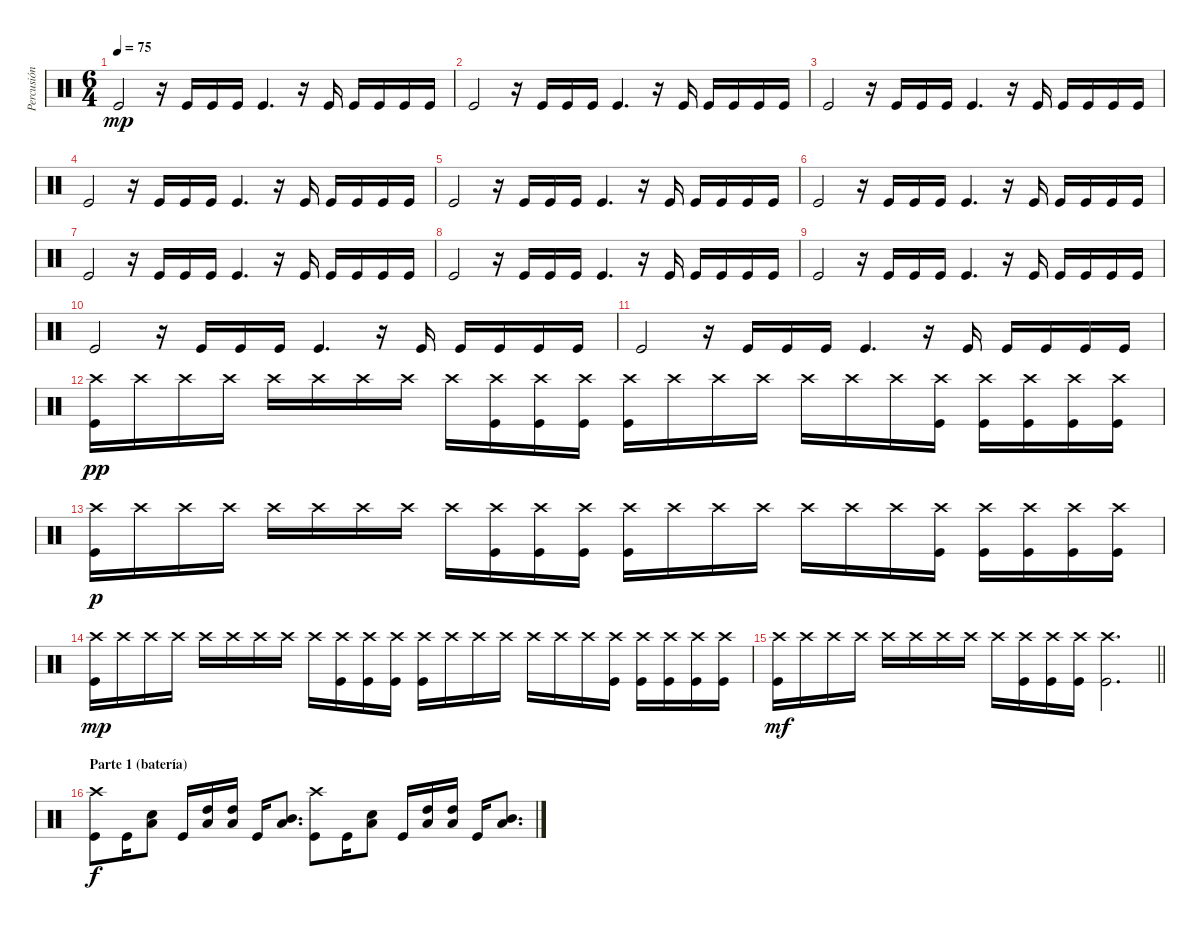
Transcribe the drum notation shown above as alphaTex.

\track ("Percusión" "Percusión") {instrument percussion}
\staff {score}
\articulation defaults
\ts (6 4)
\tempo 75
\clef neutral
\ks c "Kick (hit)".2{dy mp}
r.16 "Kick (hit)".16 "Kick (hit)".16 "Kick (hit)".16 "Kick (hit)".4{d} r.16 "Kick (hit)".16 "Kick (hit)".16 "Kick (hit)".16 "Kick (hit)".16 "Kick (hit)".16 |
"Kick (hit)".2 r.16 "Kick (hit)".16 "Kick (hit)".16 "Kick (hit)".16 "Kick (hit)".4{d} r.16 "Kick (hit)".16 "Kick (hit)".16 "Kick (hit)".16 "Kick (hit)".16 "Kick (hit)".16 |
"Kick (hit)".2 r.16 "Kick (hit)".16 "Kick (hit)".16 "Kick (hit)".16 "Kick (hit)".4{d} r.16 "Kick (hit)".16 "Kick (hit)".16 "Kick (hit)".16 "Kick (hit)".16 "Kick (hit)".16 |
"Kick (hit)".2 r.16 "Kick (hit)".16 "Kick (hit)".16 "Kick (hit)".16 "Kick (hit)".4{d} r.16 "Kick (hit)".16 "Kick (hit)".16 "Kick (hit)".16 "Kick (hit)".16 "Kick (hit)".16 |
"Kick (hit)".2 r.16 "Kick (hit)".16 "Kick (hit)".16 "Kick (hit)".16 "Kick (hit)".4{d} r.16 "Kick (hit)".16 "Kick (hit)".16 "Kick (hit)".16 "Kick (hit)".16 "Kick (hit)".16 |
"Kick (hit)".2 r.16 "Kick (hit)".16 "Kick (hit)".16 "Kick (hit)".16 "Kick (hit)".4{d} r.16 "Kick (hit)".16 "Kick (hit)".16 "Kick (hit)".16 "Kick (hit)".16 "Kick (hit)".16 |
"Kick (hit)".2 r.16 "Kick (hit)".16 "Kick (hit)".16 "Kick (hit)".16 "Kick (hit)".4{d} r.16 "Kick (hit)".16 "Kick (hit)".16 "Kick (hit)".16 "Kick (hit)".16 "Kick (hit)".16 |
"Kick (hit)".2 r.16 "Kick (hit)".16 "Kick (hit)".16 "Kick (hit)".16 "Kick (hit)".4{d} r.16 "Kick (hit)".16 "Kick (hit)".16 "Kick (hit)".16 "Kick (hit)".16 "Kick (hit)".16 |
"Kick (hit)".2 r.16 "Kick (hit)".16 "Kick (hit)".16 "Kick (hit)".16 "Kick (hit)".4{d} r.16 "Kick (hit)".16 "Kick (hit)".16 "Kick (hit)".16 "Kick (hit)".16 "Kick (hit)".16 |
"Kick (hit)".2 r.16 "Kick (hit)".16 "Kick (hit)".16 "Kick (hit)".16 "Kick (hit)".4{d} r.16 "Kick (hit)".16 "Kick (hit)".16 "Kick (hit)".16 "Kick (hit)".16 "Kick (hit)".16 |
"Kick (hit)".2 r.16 "Kick (hit)".16 "Kick (hit)".16 "Kick (hit)".16 "Kick (hit)".4{d} r.16 "Kick (hit)".16 "Kick (hit)".16 "Kick (hit)".16 "Kick (hit)".16 "Kick (hit)".16 |
("Kick (hit)" "Crash high (hit)").16{dy pp} "Crash high (hit)".16 "Crash high (hit)".16 "Crash high (hit)".16 "Crash high (hit)".16 "Crash high (hit)".16 "Crash high (hit)".16 "Crash high (hit)".16 "Crash high (hit)".16 ("Crash high (hit)" "Kick (hit)").16 ("Crash high (hit)" "Kick (hit)").16 ("Crash high (hit)" "Kick (hit)").16 ("Crash high (hit)" "Kick (hit)").16 "Crash high (hit)".16 "Crash high (hit)".16 "Crash high (hit)".16 "Crash high (hit)".16 "Crash high (hit)".16 "Crash high (hit)".16 ("Crash high (hit)" "Kick (hit)").16 ("Crash high (hit)" "Kick (hit)").16 ("Crash high (hit)" "Kick (hit)").16 ("Crash high (hit)" "Kick (hit)").16 ("Crash high (hit)" "Kick (hit)").16 |
("Kick (hit)" "Crash high (hit)").16{dy p} "Crash high (hit)".16 "Crash high (hit)".16 "Crash high (hit)".16 "Crash high (hit)".16 "Crash high (hit)".16 "Crash high (hit)".16 "Crash high (hit)".16 "Crash high (hit)".16 ("Crash high (hit)" "Kick (hit)").16 ("Crash high (hit)" "Kick (hit)").16 ("Crash high (hit)" "Kick (hit)").16 ("Crash high (hit)" "Kick (hit)").16 "Crash high (hit)".16 "Crash high (hit)".16 "Crash high (hit)".16 "Crash high (hit)".16 "Crash high (hit)".16 "Crash high (hit)".16 ("Crash high (hit)" "Kick (hit)").16 ("Crash high (hit)" "Kick (hit)").16 ("Crash high (hit)" "Kick (hit)").16 ("Crash high (hit)" "Kick (hit)").16 ("Crash high (hit)" "Kick (hit)").16 |
("Kick (hit)" "Crash high (hit)").16{dy mp} "Crash high (hit)".16 "Crash high (hit)".16 "Crash high (hit)".16 "Crash high (hit)".16 "Crash high (hit)".16 "Crash high (hit)".16 "Crash high (hit)".16 "Crash high (hit)".16 ("Crash high (hit)" "Kick (hit)").16 ("Crash high (hit)" "Kick (hit)").16 ("Crash high (hit)" "Kick (hit)").16 ("Crash high (hit)" "Kick (hit)").16 "Crash high (hit)".16 "Crash high (hit)".16 "Crash high (hit)".16 "Crash high (hit)".16 "Crash high (hit)".16 "Crash high (hit)".16 ("Crash high (hit)" "Kick (hit)").16 ("Crash high (hit)" "Kick (hit)").16 ("Crash high (hit)" "Kick (hit)").16 ("Crash high (hit)" "Kick (hit)").16 ("Crash high (hit)" "Kick (hit)").16 |
\barLineRight lightlight
("Kick (hit)" "Crash high (hit)").16{dy mf} "Crash high (hit)".16 "Crash high (hit)".16 "Crash high (hit)".16 "Crash high (hit)".16 "Crash high (hit)".16 "Crash high (hit)".16 "Crash high (hit)".16 "Crash high (hit)".16 ("Crash high (hit)" "Kick (hit)").16 ("Crash high (hit)" "Kick (hit)").16 ("Crash high (hit)" "Kick (hit)").16 ("Crash high (hit)" "Kick (hit)").2{d} |
\section ("" "Parte 1 (batería)")
("Kick (hit)" "Crash high (hit)").8{dy f} "Kick (hit)".16 ("Snare (hit) 2" "Low Tom (hit)").8 "Kick (hit)".16 ("Low Tom (hit)" "High Tom (hit)").16 ("Low Tom (hit)" "High Tom (hit)").16 "Kick (hit)".16 ("Low Tom (hit)" "Mid Tom (hit)").8{d} ("Kick (hit)" "Crash high (hit)").8 "Kick (hit)".16 ("Snare (hit) 2" "Low Tom (hit)").8 "Kick (hit)".16 ("Low Tom (hit)" "High Tom (hit)").16 ("Low Tom (hit)" "High Tom (hit)").16 "Kick (hit)".16 ("Low Tom (hit)" "Mid Tom (hit)").8{d}
